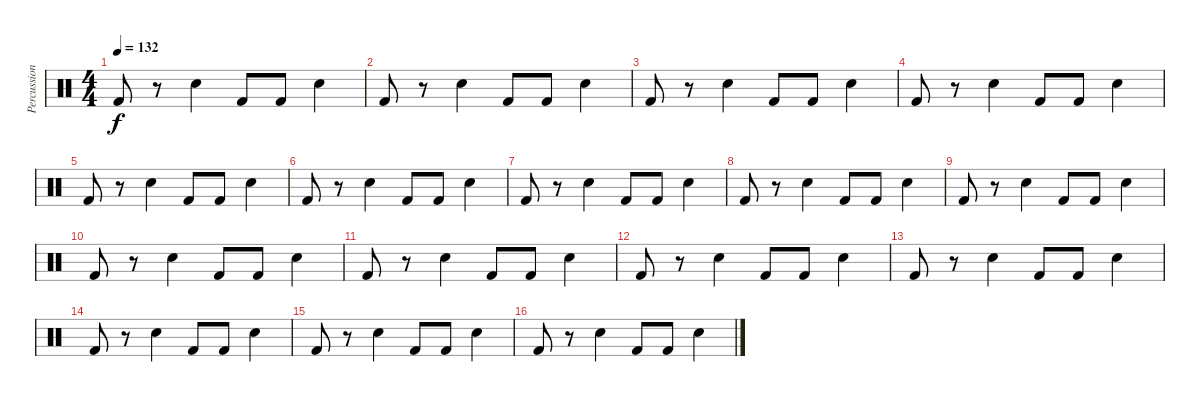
\track ("Percussions" "Percussion") {instrument percussion}
\staff {score}
\articulation defaults
\ts (4 4)
\tempo 132
\clef neutral
\ks c "Kick (hit) 2".8{dy f}
r.8 "Snare (hit) 2".4 "Kick (hit) 2".8 "Kick (hit) 2".8 "Snare (hit) 2".4 |
"Kick (hit) 2".8 r.8 "Snare (hit) 2".4 "Kick (hit) 2".8 "Kick (hit) 2".8 "Snare (hit) 2".4 |
"Kick (hit) 2".8 r.8 "Snare (hit) 2".4 "Kick (hit) 2".8 "Kick (hit) 2".8 "Snare (hit) 2".4 |
"Kick (hit) 2".8 r.8 "Snare (hit) 2".4 "Kick (hit) 2".8 "Kick (hit) 2".8 "Snare (hit) 2".4 |
"Kick (hit) 2".8 r.8 "Snare (hit) 2".4 "Kick (hit) 2".8 "Kick (hit) 2".8 "Snare (hit) 2".4 |
"Kick (hit) 2".8 r.8 "Snare (hit) 2".4 "Kick (hit) 2".8 "Kick (hit) 2".8 "Snare (hit) 2".4 |
"Kick (hit) 2".8 r.8 "Snare (hit) 2".4 "Kick (hit) 2".8 "Kick (hit) 2".8 "Snare (hit) 2".4 |
"Kick (hit) 2".8 r.8 "Snare (hit) 2".4 "Kick (hit) 2".8 "Kick (hit) 2".8 "Snare (hit) 2".4 |
"Kick (hit) 2".8 r.8 "Snare (hit) 2".4 "Kick (hit) 2".8 "Kick (hit) 2".8 "Snare (hit) 2".4 |
"Kick (hit) 2".8 r.8 "Snare (hit) 2".4 "Kick (hit) 2".8 "Kick (hit) 2".8 "Snare (hit) 2".4 |
"Kick (hit) 2".8 r.8 "Snare (hit) 2".4 "Kick (hit) 2".8 "Kick (hit) 2".8 "Snare (hit) 2".4 |
"Kick (hit) 2".8 r.8 "Snare (hit) 2".4 "Kick (hit) 2".8 "Kick (hit) 2".8 "Snare (hit) 2".4 |
"Kick (hit) 2".8 r.8 "Snare (hit) 2".4 "Kick (hit) 2".8 "Kick (hit) 2".8 "Snare (hit) 2".4 |
"Kick (hit) 2".8 r.8 "Snare (hit) 2".4 "Kick (hit) 2".8 "Kick (hit) 2".8 "Snare (hit) 2".4 |
"Kick (hit) 2".8 r.8 "Snare (hit) 2".4 "Kick (hit) 2".8 "Kick (hit) 2".8 "Snare (hit) 2".4 |
"Kick (hit) 2".8 r.8 "Snare (hit) 2".4 "Kick (hit) 2".8 "Kick (hit) 2".8 "Snare (hit) 2".4
